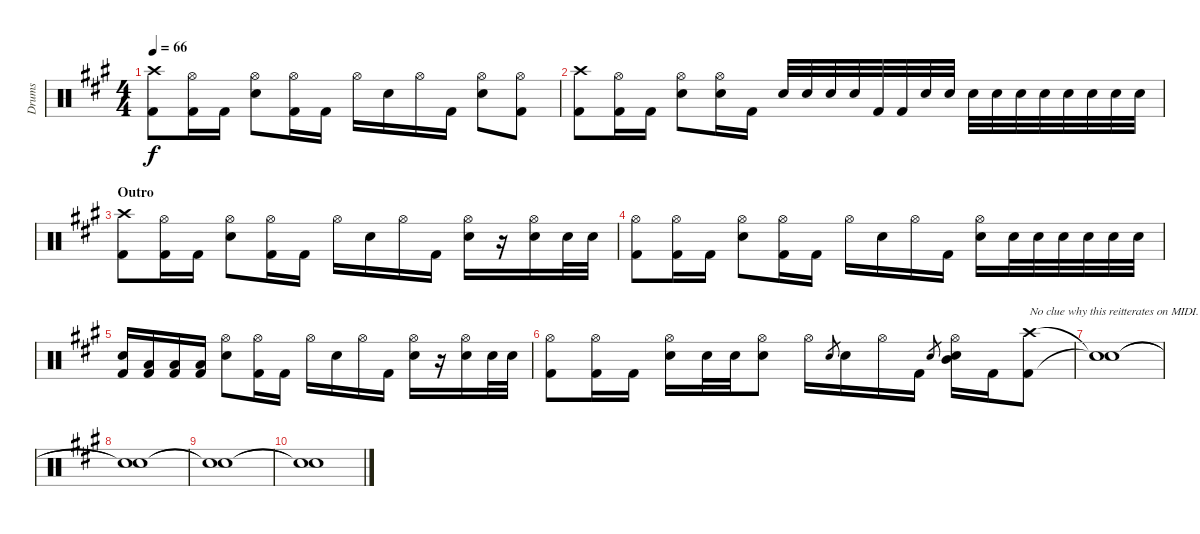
\track ("Drums" "Drums") {instrument percussion}
\staff {score}
\articulation defaults
\ts (4 4)
\tempo 66
\clef neutral
\ks a
("Crash high (hit)" "Kick (hit) 2").8{dy f} ("Hi-Hat (open)" "Kick (hit) 2").16 "Kick (hit) 2".16 ("Hi-Hat (open)" "Snare (hit) 2").8 ("Hi-Hat (open)" "Kick (hit) 2").16 "Kick (hit) 2".16 "Hi-Hat (open)".16 "Snare (hit) 2".16 "Hi-Hat (open)".16 "Kick (hit) 2".16 ("Hi-Hat (open)" "Snare (hit) 2").8 ("Hi-Hat (open)" "Kick (hit) 2").8 |
("Crash high (hit)" "Kick (hit) 2").8 ("Hi-Hat (open)" "Kick (hit) 2").16 "Kick (hit) 2".16 ("Hi-Hat (open)" "Snare (hit) 2").8 ("Hi-Hat (open)" "Snare (hit) 2").16 "Kick (hit) 2".16 "Snare (hit) 2".32 "Snare (hit) 2".32 "Snare (hit) 2".32 "Snare (hit) 2".32 "Kick (hit) 2".32 "Kick (hit) 2".32 "Snare (hit) 2".32 "Snare (hit) 2".32 "Snare (hit) 2".32 "Snare (hit) 2".32 "Snare (hit) 2".32 "Snare (hit) 2".32 "Snare (hit) 2".32 "Snare (hit) 2".32 "Snare (hit) 2".32 "Snare (hit) 2".32 |
\section ("" "Outro")
("Crash high (hit)" "Kick (hit) 2").8 ("Hi-Hat (open)" "Kick (hit) 2").16 "Kick (hit) 2".16 ("Hi-Hat (open)" "Snare (hit) 2").8 ("Hi-Hat (open)" "Kick (hit) 2").16 "Kick (hit) 2".16 "Hi-Hat (open)".16 "Snare (hit) 2".16 "Hi-Hat (open)".16 "Kick (hit) 2".16 ("Hi-Hat (open)" "Snare (hit) 2").16 r.16 ("Hi-Hat (open)" "Snare (hit) 2").16 "Snare (hit) 2".32 "Snare (hit) 2".32 |
("Hi-Hat (open)" "Kick (hit) 2").8 ("Hi-Hat (open)" "Kick (hit) 2").16 "Kick (hit) 2".16 ("Hi-Hat (open)" "Snare (hit) 2").8 ("Hi-Hat (open)" "Kick (hit) 2").16 "Kick (hit) 2".16 "Hi-Hat (open)".16 "Snare (hit) 2".16 "Hi-Hat (open)".16 "Kick (hit) 2".16 ("Hi-Hat (open)" "Snare (hit) 2").16 "Snare (hit) 2".32 "Snare (hit) 2".32 "Snare (hit) 2".32 "Snare (hit) 2".32 "Snare (hit) 2".32 "Snare (hit) 2".32 |
("Snare (hit) 2" "Kick (hit) 2").16 ("Low Floor Tom (hit)" "Kick (hit) 2").16 ("Low Floor Tom (hit)" "Kick (hit) 2").16 ("Low Floor Tom (hit)" "Kick (hit) 2").16 ("Hi-Hat (open)" "Snare (hit) 2").8 ("Hi-Hat (open)" "Kick (hit) 2").16 "Kick (hit) 2".16 "Hi-Hat (open)".16 "Snare (hit) 2".16 "Hi-Hat (open)".16 "Kick (hit) 2".16 ("Hi-Hat (open)" "Snare (hit) 2").16 r.16 ("Hi-Hat (open)" "Snare (hit) 2").16 "Snare (hit) 2".32 "Snare (hit) 2".32 |
("Hi-Hat (open)" "Kick (hit) 2").8 ("Hi-Hat (open)" "Kick (hit) 2").16 "Kick (hit) 2".16 ("Hi-Hat (open)" "Snare (hit) 2").16 "Snare (hit) 2".32 "Snare (hit) 2".32 ("Hi-Hat (open)" "Snare (hit) 2").8 "Hi-Hat (open)".16 "Snare (hit) 2".8{gr} "Snare (hit) 2".16 "Hi-Hat (open)".16 "Kick (hit) 2".16 "Snare (hit) 2".8{gr} ("Hi-Hat (open)" "Snare (hit) 2" "Mid Tom (hit)").16 "Kick (hit) 2".16 ("Crash high (hit)" "Kick (hit) 2").8{txt "No clue why this reitterates on MIDI."} |
("Snare (hit)"{t} "Snare (hit)"{t}).1 |
("Snare (hit)"{t} "Snare (hit)"{t}).1 |
("Snare (hit)"{t} "Snare (hit)"{t}).1 |
("Snare (hit)"{t} "Snare (hit)"{t}).1
